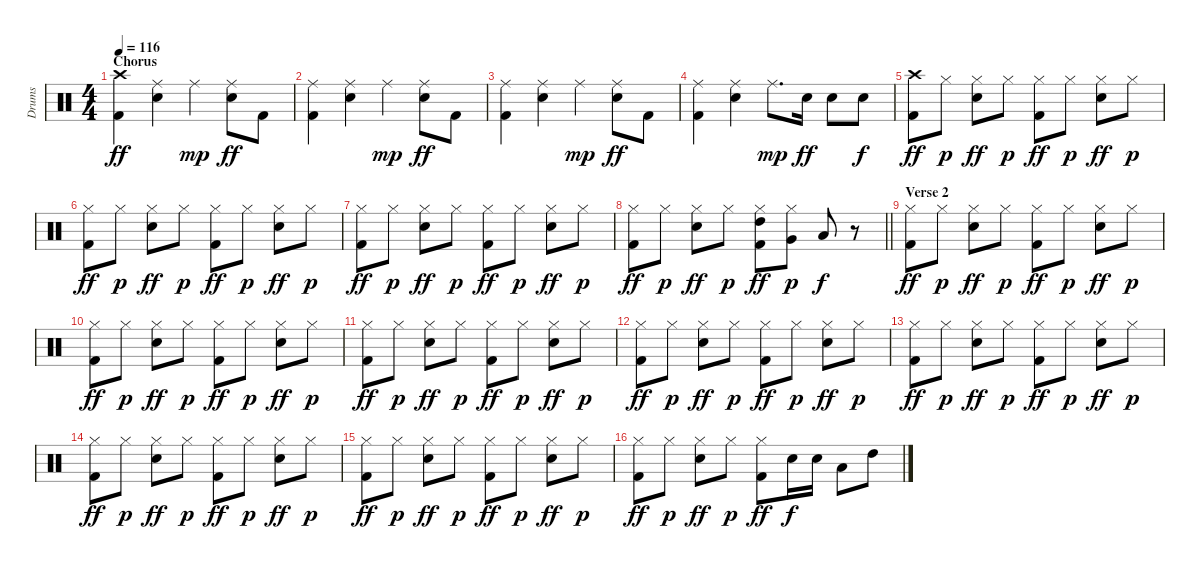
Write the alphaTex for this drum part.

\track ("Drums" "Drums") {instrument percussion}
\staff {score}
\articulation defaults
\ts (4 4)
\section ("" "Chorus")
\tempo 116
\clef neutral
\ks c
("Crash high (hit)" "Kick (hit) 2").4{dy ff} ("Ride (middle)" "Snare (hit) 2").4 "Ride (middle)".4{dy mp} ("Ride (middle)" "Snare (hit) 2").8{dy ff} "Kick (hit) 2".8 |
("Ride (middle)" "Kick (hit) 2").4 ("Ride (middle)" "Snare (hit) 2").4 "Ride (middle)".4{dy mp} ("Ride (middle)" "Snare (hit) 2").8{dy ff} "Kick (hit) 2".8 |
("Ride (middle)" "Kick (hit) 2").4 ("Ride (middle)" "Snare (hit) 2").4 "Ride (middle)".4{dy mp} ("Ride (middle)" "Snare (hit) 2").8{dy ff} "Kick (hit) 2".8 |
("Ride (middle)" "Kick (hit) 2").4 ("Ride (middle)" "Snare (hit) 2").4 "Ride (middle)".8{d dy mp} "Snare (hit) 2".16{dy ff} "Snare (hit) 2".8 "Snare (hit) 2".8{dy f} |
("Crash high (hit)" "Kick (hit) 2").8{dy ff} "Hi-Hat (closed)".8{dy p} ("Hi-Hat (closed)" "Snare (hit) 2").8{dy ff} "Hi-Hat (closed)".8{dy p} ("Hi-Hat (closed)" "Kick (hit) 2").8{dy ff} "Hi-Hat (closed)".8{dy p} ("Hi-Hat (closed)" "Snare (hit) 2").8{dy ff} "Hi-Hat (closed)".8{dy p} |
("Hi-Hat (closed)" "Kick (hit) 2").8{dy ff} "Hi-Hat (closed)".8{dy p} ("Hi-Hat (closed)" "Snare (hit) 2").8{dy ff} "Hi-Hat (closed)".8{dy p} ("Hi-Hat (closed)" "Kick (hit) 2").8{dy ff} "Hi-Hat (closed)".8{dy p} ("Hi-Hat (closed)" "Snare (hit) 2").8{dy ff} "Hi-Hat (closed)".8{dy p} |
("Hi-Hat (closed)" "Kick (hit) 2").8{dy ff} "Hi-Hat (closed)".8{dy p} ("Hi-Hat (closed)" "Snare (hit) 2").8{dy ff} "Hi-Hat (closed)".8{dy p} ("Hi-Hat (closed)" "Kick (hit) 2").8{dy ff} "Hi-Hat (closed)".8{dy p} ("Hi-Hat (closed)" "Snare (hit) 2").8{dy ff} "Hi-Hat (closed)".8{dy p} |
\barLineRight lightlight
("Hi-Hat (closed)" "Kick (hit) 2").8{dy ff} "Hi-Hat (closed)".8{dy p} ("Hi-Hat (closed)" "Snare (hit) 2").8{dy ff} "Hi-Hat (closed)".8{dy p} ("Hi-Hat (closed)" "High Tom (hit)" "Kick (hit) 2").8{dy ff} ("Hi-Hat (closed)" "Very Low Tom (hit)").8{dy p} "Low Floor Tom (hit)".8{dy f} r.8 |
\section ("" "Verse 2")
("Hi-Hat (closed)" "Kick (hit) 2").8{dy ff} "Hi-Hat (closed)".8{dy p} ("Hi-Hat (closed)" "Snare (hit) 2").8{dy ff} "Hi-Hat (closed)".8{dy p} ("Hi-Hat (closed)" "Kick (hit) 2").8{dy ff} "Hi-Hat (closed)".8{dy p} ("Hi-Hat (closed)" "Snare (hit) 2").8{dy ff} "Hi-Hat (closed)".8{dy p} |
("Hi-Hat (closed)" "Kick (hit) 2").8{dy ff} "Hi-Hat (closed)".8{dy p} ("Hi-Hat (closed)" "Snare (hit) 2").8{dy ff} "Hi-Hat (closed)".8{dy p} ("Hi-Hat (closed)" "Kick (hit) 2").8{dy ff} "Hi-Hat (closed)".8{dy p} ("Hi-Hat (closed)" "Snare (hit) 2").8{dy ff} "Hi-Hat (closed)".8{dy p} |
("Hi-Hat (closed)" "Kick (hit) 2").8{dy ff} "Hi-Hat (closed)".8{dy p} ("Hi-Hat (closed)" "Snare (hit) 2").8{dy ff} "Hi-Hat (closed)".8{dy p} ("Hi-Hat (closed)" "Kick (hit) 2").8{dy ff} "Hi-Hat (closed)".8{dy p} ("Hi-Hat (closed)" "Snare (hit) 2").8{dy ff} "Hi-Hat (closed)".8{dy p} |
("Hi-Hat (closed)" "Kick (hit) 2").8{dy ff} "Hi-Hat (closed)".8{dy p} ("Hi-Hat (closed)" "Snare (hit) 2").8{dy ff} "Hi-Hat (closed)".8{dy p} ("Hi-Hat (closed)" "Kick (hit) 2").8{dy ff} "Hi-Hat (closed)".8{dy p} ("Hi-Hat (closed)" "Snare (hit) 2").8{dy ff} "Hi-Hat (closed)".8{dy p} |
("Hi-Hat (closed)" "Kick (hit) 2").8{dy ff} "Hi-Hat (closed)".8{dy p} ("Hi-Hat (closed)" "Snare (hit) 2").8{dy ff} "Hi-Hat (closed)".8{dy p} ("Hi-Hat (closed)" "Kick (hit) 2").8{dy ff} "Hi-Hat (closed)".8{dy p} ("Hi-Hat (closed)" "Snare (hit) 2").8{dy ff} "Hi-Hat (closed)".8{dy p} |
("Hi-Hat (closed)" "Kick (hit) 2").8{dy ff} "Hi-Hat (closed)".8{dy p} ("Hi-Hat (closed)" "Snare (hit) 2").8{dy ff} "Hi-Hat (closed)".8{dy p} ("Hi-Hat (closed)" "Kick (hit) 2").8{dy ff} "Hi-Hat (closed)".8{dy p} ("Hi-Hat (closed)" "Snare (hit) 2").8{dy ff} "Hi-Hat (closed)".8{dy p} |
("Hi-Hat (closed)" "Kick (hit) 2").8{dy ff} "Hi-Hat (closed)".8{dy p} ("Hi-Hat (closed)" "Snare (hit) 2").8{dy ff} "Hi-Hat (closed)".8{dy p} ("Hi-Hat (closed)" "Kick (hit) 2").8{dy ff} "Hi-Hat (closed)".8{dy p} ("Hi-Hat (closed)" "Snare (hit) 2").8{dy ff} "Hi-Hat (closed)".8{dy p} |
("Hi-Hat (closed)" "Kick (hit) 2").8{dy ff} "Hi-Hat (closed)".8{dy p} ("Hi-Hat (closed)" "Snare (hit) 2").8{dy ff} "Hi-Hat (closed)".8{dy p} ("Hi-Hat (closed)" "Kick (hit) 2").8{dy ff} "Snare (hit) 2".16{dy f} "Snare (hit) 2".16 "Low Tom (hit)".8 "High Tom (hit)".8
